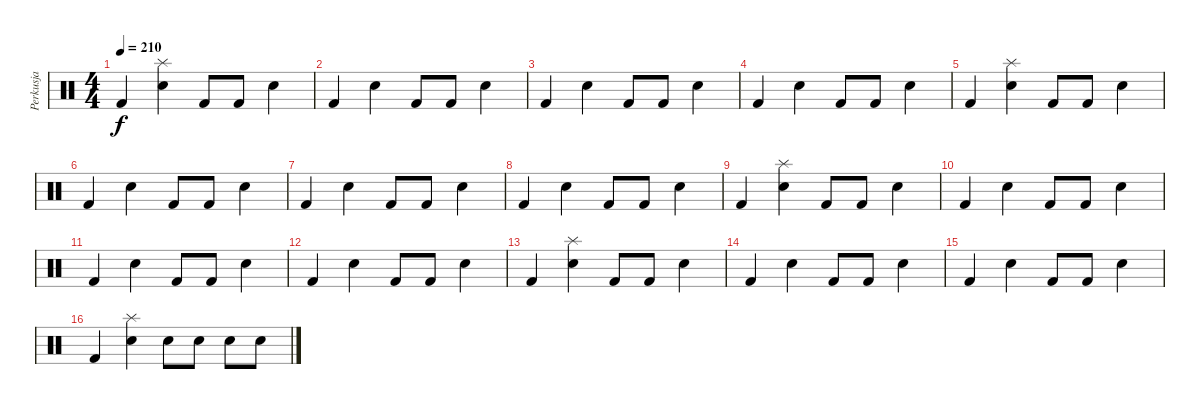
\track ("Perkusja" "Perkusja") {instrument percussion}
\staff {score}
\articulation defaults
\ts (4 4)
\tempo 210
\clef neutral
\ks c "Kick (hit) 2".4{dy f}
("Snare (hit) 2" "Splash (hit)").4 "Kick (hit) 2".8 "Kick (hit) 2".8 "Snare (hit) 2".4 |
"Kick (hit) 2".4 "Snare (hit) 2".4 "Kick (hit) 2".8 "Kick (hit) 2".8 "Snare (hit) 2".4 |
"Kick (hit) 2".4 "Snare (hit) 2".4 "Kick (hit) 2".8 "Kick (hit) 2".8 "Snare (hit) 2".4 |
"Kick (hit) 2".4 "Snare (hit) 2".4 "Kick (hit) 2".8 "Kick (hit) 2".8 "Snare (hit) 2".4 |
"Kick (hit) 2".4 ("Snare (hit) 2" "Splash (hit)").4 "Kick (hit) 2".8 "Kick (hit) 2".8 "Snare (hit) 2".4 |
"Kick (hit) 2".4 "Snare (hit) 2".4 "Kick (hit) 2".8 "Kick (hit) 2".8 "Snare (hit) 2".4 |
"Kick (hit) 2".4 "Snare (hit) 2".4 "Kick (hit) 2".8 "Kick (hit) 2".8 "Snare (hit) 2".4 |
"Kick (hit) 2".4 "Snare (hit) 2".4 "Kick (hit) 2".8 "Kick (hit) 2".8 "Snare (hit) 2".4 |
"Kick (hit) 2".4 ("Snare (hit) 2" "Splash (hit)").4 "Kick (hit) 2".8 "Kick (hit) 2".8 "Snare (hit) 2".4 |
"Kick (hit) 2".4 "Snare (hit) 2".4 "Kick (hit) 2".8 "Kick (hit) 2".8 "Snare (hit) 2".4 |
"Kick (hit) 2".4 "Snare (hit) 2".4 "Kick (hit) 2".8 "Kick (hit) 2".8 "Snare (hit) 2".4 |
"Kick (hit) 2".4 "Snare (hit) 2".4 "Kick (hit) 2".8 "Kick (hit) 2".8 "Snare (hit) 2".4 |
"Kick (hit) 2".4 ("Snare (hit) 2" "Splash (hit)").4 "Kick (hit) 2".8 "Kick (hit) 2".8 "Snare (hit) 2".4 |
"Kick (hit) 2".4 "Snare (hit) 2".4 "Kick (hit) 2".8 "Kick (hit) 2".8 "Snare (hit) 2".4 |
"Kick (hit) 2".4 "Snare (hit) 2".4 "Kick (hit) 2".8 "Kick (hit) 2".8 "Snare (hit) 2".4 |
"Kick (hit) 2".4 ("Snare (hit) 2" "Splash (hit)").4 "Snare (hit) 2".8 "Snare (hit) 2".8 "Snare (hit) 2".8 "Snare (hit) 2".8
